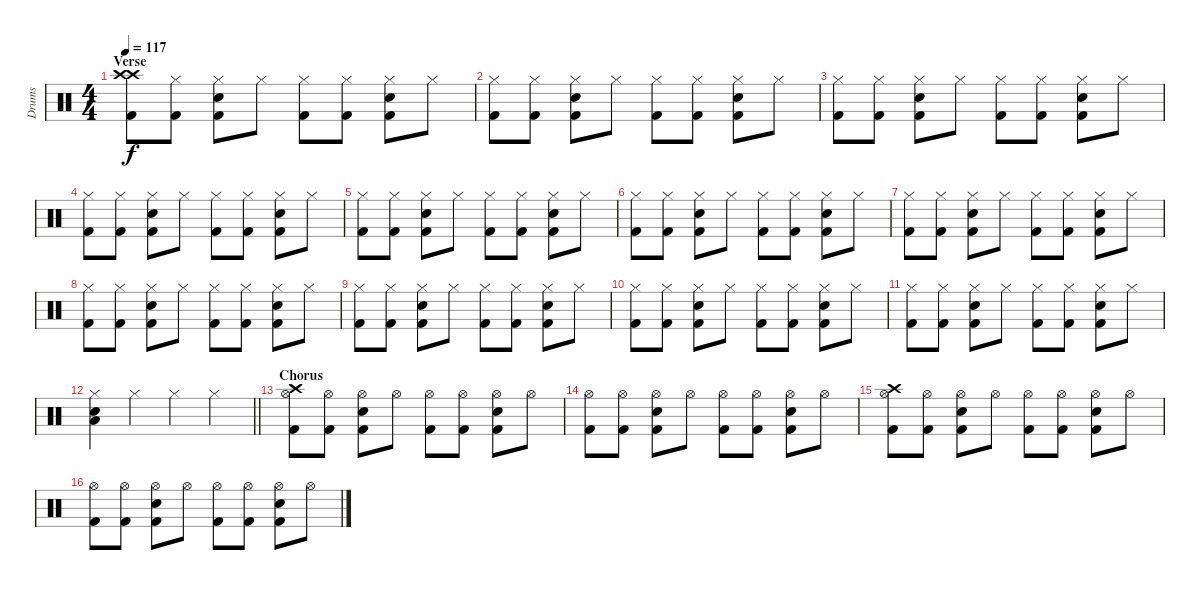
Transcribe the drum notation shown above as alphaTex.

\track ("Drums" "Drums") {instrument percussion}
\staff {score}
\articulation defaults
\ts (4 4)
\section ("" "Verse")
\tempo 117
\clef neutral
\ks c
("Kick (hit) 2" "Crash high (hit)" "Crash high (hit)").8{dy f volume 13} ("Kick (hit) 2" "Hi-Hat (closed)").8 ("Kick (hit) 2" "Hi-Hat (closed)" "Snare (hit) 2").8 "Hi-Hat (closed)".8 ("Kick (hit) 2" "Hi-Hat (closed)").8 ("Kick (hit) 2" "Hi-Hat (closed)").8 ("Kick (hit) 2" "Hi-Hat (closed)" "Snare (hit) 2").8 "Hi-Hat (closed)".8 |
("Kick (hit) 2" "Hi-Hat (closed)").8 ("Kick (hit) 2" "Hi-Hat (closed)").8 ("Kick (hit) 2" "Hi-Hat (closed)" "Snare (hit) 2").8 "Hi-Hat (closed)".8 ("Kick (hit) 2" "Hi-Hat (closed)").8 ("Kick (hit) 2" "Hi-Hat (closed)").8 ("Kick (hit) 2" "Hi-Hat (closed)" "Snare (hit) 2").8 "Hi-Hat (closed)".8 |
("Kick (hit) 2" "Hi-Hat (closed)").8 ("Kick (hit) 2" "Hi-Hat (closed)").8 ("Kick (hit) 2" "Hi-Hat (closed)" "Snare (hit) 2").8 "Hi-Hat (closed)".8 ("Kick (hit) 2" "Hi-Hat (closed)").8 ("Kick (hit) 2" "Hi-Hat (closed)").8 ("Kick (hit) 2" "Hi-Hat (closed)" "Snare (hit) 2").8 "Hi-Hat (closed)".8 |
("Kick (hit) 2" "Hi-Hat (closed)").8 ("Kick (hit) 2" "Hi-Hat (closed)").8 ("Kick (hit) 2" "Hi-Hat (closed)" "Snare (hit) 2").8 "Hi-Hat (closed)".8 ("Kick (hit) 2" "Hi-Hat (closed)").8 ("Kick (hit) 2" "Hi-Hat (closed)").8 ("Kick (hit) 2" "Hi-Hat (closed)" "Snare (hit) 2").8 "Hi-Hat (closed)".8 |
("Kick (hit) 2" "Hi-Hat (closed)").8 ("Kick (hit) 2" "Hi-Hat (closed)").8 ("Kick (hit) 2" "Hi-Hat (closed)" "Snare (hit) 2").8 "Hi-Hat (closed)".8 ("Kick (hit) 2" "Hi-Hat (closed)").8 ("Kick (hit) 2" "Hi-Hat (closed)").8 ("Kick (hit) 2" "Hi-Hat (closed)" "Snare (hit) 2").8 "Hi-Hat (closed)".8 |
("Kick (hit) 2" "Hi-Hat (closed)").8 ("Kick (hit) 2" "Hi-Hat (closed)").8 ("Kick (hit) 2" "Hi-Hat (closed)" "Snare (hit) 2").8 "Hi-Hat (closed)".8 ("Kick (hit) 2" "Hi-Hat (closed)").8 ("Kick (hit) 2" "Hi-Hat (closed)").8 ("Kick (hit) 2" "Hi-Hat (closed)" "Snare (hit) 2").8 "Hi-Hat (closed)".8 |
("Kick (hit) 2" "Hi-Hat (closed)").8 ("Kick (hit) 2" "Hi-Hat (closed)").8 ("Kick (hit) 2" "Hi-Hat (closed)" "Snare (hit) 2").8 "Hi-Hat (closed)".8 ("Kick (hit) 2" "Hi-Hat (closed)").8 ("Kick (hit) 2" "Hi-Hat (closed)").8 ("Kick (hit) 2" "Hi-Hat (closed)" "Snare (hit) 2").8 "Hi-Hat (closed)".8 |
("Kick (hit) 2" "Hi-Hat (closed)").8 ("Kick (hit) 2" "Hi-Hat (closed)").8 ("Kick (hit) 2" "Hi-Hat (closed)" "Snare (hit) 2").8 "Hi-Hat (closed)".8 ("Kick (hit) 2" "Hi-Hat (closed)").8 ("Kick (hit) 2" "Hi-Hat (closed)").8 ("Kick (hit) 2" "Hi-Hat (closed)" "Snare (hit) 2").8 "Hi-Hat (closed)".8 |
("Kick (hit) 2" "Hi-Hat (closed)").8 ("Kick (hit) 2" "Hi-Hat (closed)").8 ("Kick (hit) 2" "Hi-Hat (closed)" "Snare (hit) 2").8 "Hi-Hat (closed)".8 ("Kick (hit) 2" "Hi-Hat (closed)").8 ("Kick (hit) 2" "Hi-Hat (closed)").8 ("Kick (hit) 2" "Hi-Hat (closed)" "Snare (hit) 2").8 "Hi-Hat (closed)".8 |
("Kick (hit) 2" "Hi-Hat (closed)").8 ("Kick (hit) 2" "Hi-Hat (closed)").8 ("Kick (hit) 2" "Hi-Hat (closed)" "Snare (hit) 2").8 "Hi-Hat (closed)".8 ("Kick (hit) 2" "Hi-Hat (closed)").8 ("Kick (hit) 2" "Hi-Hat (closed)").8 ("Kick (hit) 2" "Hi-Hat (closed)" "Snare (hit) 2").8 "Hi-Hat (closed)".8 |
("Kick (hit) 2" "Hi-Hat (closed)").8 ("Kick (hit) 2" "Hi-Hat (closed)").8 ("Kick (hit) 2" "Hi-Hat (closed)" "Snare (hit) 2").8 "Hi-Hat (closed)".8 ("Kick (hit) 2" "Hi-Hat (closed)").8 ("Kick (hit) 2" "Hi-Hat (closed)").8 ("Kick (hit) 2" "Hi-Hat (closed)" "Snare (hit) 2").8 "Hi-Hat (closed)".8 |
\barLineRight lightlight
("Low Floor Tom (hit)" "Hi-Hat (closed)" "Snare (hit) 2").4 "Hi-Hat (closed)".4 "Hi-Hat (closed)".4 "Hi-Hat (closed)".4 |
\section ("" "Chorus")
("Kick (hit) 2" "Hi-Hat (open)" "Crash high (hit)").8 ("Kick (hit) 2" "Hi-Hat (open)").8 ("Kick (hit) 2" "Hi-Hat (open)" "Snare (hit) 2").8 "Hi-Hat (open)".8 ("Kick (hit) 2" "Hi-Hat (open)").8 ("Kick (hit) 2" "Hi-Hat (open)").8 ("Kick (hit) 2" "Hi-Hat (open)" "Snare (hit) 2").8 "Hi-Hat (open)".8 |
("Kick (hit) 2" "Hi-Hat (open)").8 ("Kick (hit) 2" "Hi-Hat (open)").8 ("Kick (hit) 2" "Hi-Hat (open)" "Snare (hit) 2").8 "Hi-Hat (open)".8 ("Kick (hit) 2" "Hi-Hat (open)").8 ("Kick (hit) 2" "Hi-Hat (open)").8 ("Kick (hit) 2" "Hi-Hat (open)" "Snare (hit) 2").8 "Hi-Hat (open)".8 |
("Kick (hit) 2" "Hi-Hat (open)" "Crash high (hit)").8 ("Kick (hit) 2" "Hi-Hat (open)").8 ("Kick (hit) 2" "Hi-Hat (open)" "Snare (hit) 2").8 "Hi-Hat (open)".8 ("Kick (hit) 2" "Hi-Hat (open)").8 ("Kick (hit) 2" "Hi-Hat (open)").8 ("Kick (hit) 2" "Hi-Hat (open)" "Snare (hit) 2").8 "Hi-Hat (open)".8 |
("Kick (hit) 2" "Hi-Hat (open)").8 ("Kick (hit) 2" "Hi-Hat (open)").8 ("Kick (hit) 2" "Hi-Hat (open)" "Snare (hit) 2").8 "Hi-Hat (open)".8 ("Kick (hit) 2" "Hi-Hat (open)").8 ("Kick (hit) 2" "Hi-Hat (open)").8 ("Kick (hit) 2" "Hi-Hat (open)" "Snare (hit) 2").8 "Hi-Hat (open)".8
